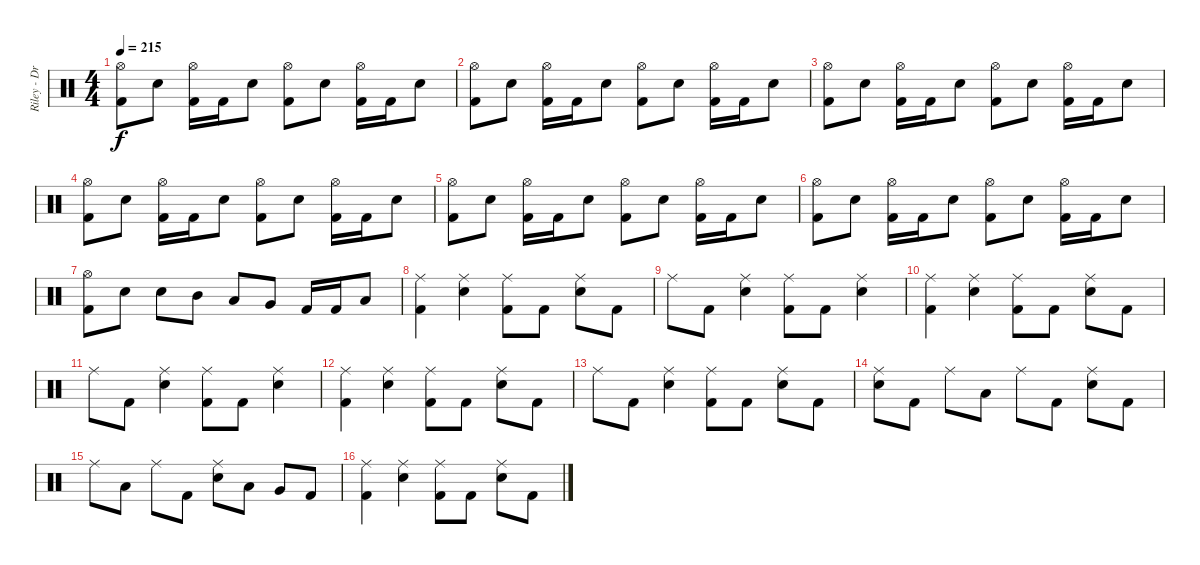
\track ("Riley - Drums" "Riley - Dr") {instrument percussion}
\staff {score}
\articulation defaults
\ts (4 4)
\tempo 215
\clef neutral
\ks c
("Hi-Hat (open)" "Kick (hit) 2").8{dy f} "Electric Snare (hit)".8 ("Hi-Hat (open)" "Kick (hit) 2").16 "Kick (hit) 2".16 "Electric Snare (hit)".8 ("Hi-Hat (open)" "Kick (hit) 2").8 "Electric Snare (hit)".8 ("Hi-Hat (open)" "Kick (hit) 2").16 "Kick (hit) 2".16 "Electric Snare (hit)".8 |
("Hi-Hat (open)" "Kick (hit) 2").8 "Electric Snare (hit)".8 ("Hi-Hat (open)" "Kick (hit) 2").16 "Kick (hit) 2".16 "Electric Snare (hit)".8 ("Hi-Hat (open)" "Kick (hit) 2").8 "Electric Snare (hit)".8 ("Hi-Hat (open)" "Kick (hit) 2").16 "Kick (hit) 2".16 "Electric Snare (hit)".8 |
("Hi-Hat (open)" "Kick (hit) 2").8 "Electric Snare (hit)".8 ("Hi-Hat (open)" "Kick (hit) 2").16 "Kick (hit) 2".16 "Electric Snare (hit)".8 ("Hi-Hat (open)" "Kick (hit) 2").8 "Electric Snare (hit)".8 ("Hi-Hat (open)" "Kick (hit) 2").16 "Kick (hit) 2".16 "Electric Snare (hit)".8 |
("Hi-Hat (open)" "Kick (hit) 2").8 "Electric Snare (hit)".8 ("Hi-Hat (open)" "Kick (hit) 2").16 "Kick (hit) 2".16 "Electric Snare (hit)".8 ("Hi-Hat (open)" "Kick (hit) 2").8 "Electric Snare (hit)".8 ("Hi-Hat (open)" "Kick (hit) 2").16 "Kick (hit) 2".16 "Electric Snare (hit)".8 |
("Hi-Hat (open)" "Kick (hit) 2").8 "Electric Snare (hit)".8 ("Hi-Hat (open)" "Kick (hit) 2").16 "Kick (hit) 2".16 "Electric Snare (hit)".8 ("Hi-Hat (open)" "Kick (hit) 2").8 "Electric Snare (hit)".8 ("Hi-Hat (open)" "Kick (hit) 2").16 "Kick (hit) 2".16 "Electric Snare (hit)".8 |
("Hi-Hat (open)" "Kick (hit) 2").8 "Electric Snare (hit)".8 ("Hi-Hat (open)" "Kick (hit) 2").16 "Kick (hit) 2".16 "Electric Snare (hit)".8 ("Hi-Hat (open)" "Kick (hit) 2").8 "Electric Snare (hit)".8 ("Hi-Hat (open)" "Kick (hit) 2").16 "Kick (hit) 2".16 "Electric Snare (hit)".8 |
("Hi-Hat (open)" "Kick (hit) 2").8 "Electric Snare (hit)".8 "Electric Snare (hit)".8 "Mid Tom (hit)".8 "Low Tom (hit)".8 "Very Low Tom (hit)".8 "Kick (hit) 2".16 "Kick (hit) 2".16 "Low Floor Tom (hit)".8 |
("Ride (middle)" "Kick (hit) 2").4 ("Ride (middle)" "Electric Snare (hit)").4 ("Ride (middle)" "Kick (hit) 2").8 "Kick (hit) 2".8 ("Ride (middle)" "Electric Snare (hit)").8 "Kick (hit) 2".8 |
"Ride (middle)".8 "Kick (hit) 2".8 ("Ride (middle)" "Electric Snare (hit)").4 ("Ride (middle)" "Kick (hit) 2").8 "Kick (hit) 2".8 ("Ride (middle)" "Electric Snare (hit)").4 |
("Ride (middle)" "Kick (hit) 2").4 ("Ride (middle)" "Electric Snare (hit)").4 ("Ride (middle)" "Kick (hit) 2").8 "Kick (hit) 2".8 ("Ride (middle)" "Electric Snare (hit)").8 "Kick (hit) 2".8 |
"Ride (middle)".8 "Kick (hit) 2".8 ("Ride (middle)" "Electric Snare (hit)").4 ("Ride (middle)" "Kick (hit) 2").8 "Kick (hit) 2".8 ("Ride (middle)" "Electric Snare (hit)").4 |
("Ride (middle)" "Kick (hit) 2").4 ("Ride (middle)" "Electric Snare (hit)").4 ("Ride (middle)" "Kick (hit) 2").8 "Kick (hit) 2".8 ("Ride (middle)" "Electric Snare (hit)").8 "Kick (hit) 2".8 |
"Ride (middle)".8 "Kick (hit) 2".8 ("Ride (middle)" "Electric Snare (hit)").4 ("Ride (middle)" "Kick (hit) 2").8 "Kick (hit) 2".8 ("Ride (middle)" "Electric Snare (hit)").8 "Kick (hit) 2".8 |
("Ride (middle)" "Electric Snare (hit)").8 "Kick (hit) 2".8 "Ride (middle)".8 "Low Tom (hit)".8 "Ride (middle)".8 "Kick (hit) 2".8 ("Ride (middle)" "Electric Snare (hit)").8 "Kick (hit) 2".8 |
"Ride (middle)".8 "Low Tom (hit)".8 "Ride (middle)".8 "Kick (hit) 2".8 ("Ride (middle)" "Electric Snare (hit)").8 "Low Tom (hit)".8 "Very Low Tom (hit)".8 "Kick (hit) 2".8 |
("Ride (middle)" "Kick (hit) 2").4 ("Ride (middle)" "Electric Snare (hit)").4 ("Ride (middle)" "Kick (hit) 2").8 "Kick (hit) 2".8 ("Ride (middle)" "Electric Snare (hit)").8 "Kick (hit) 2".8
